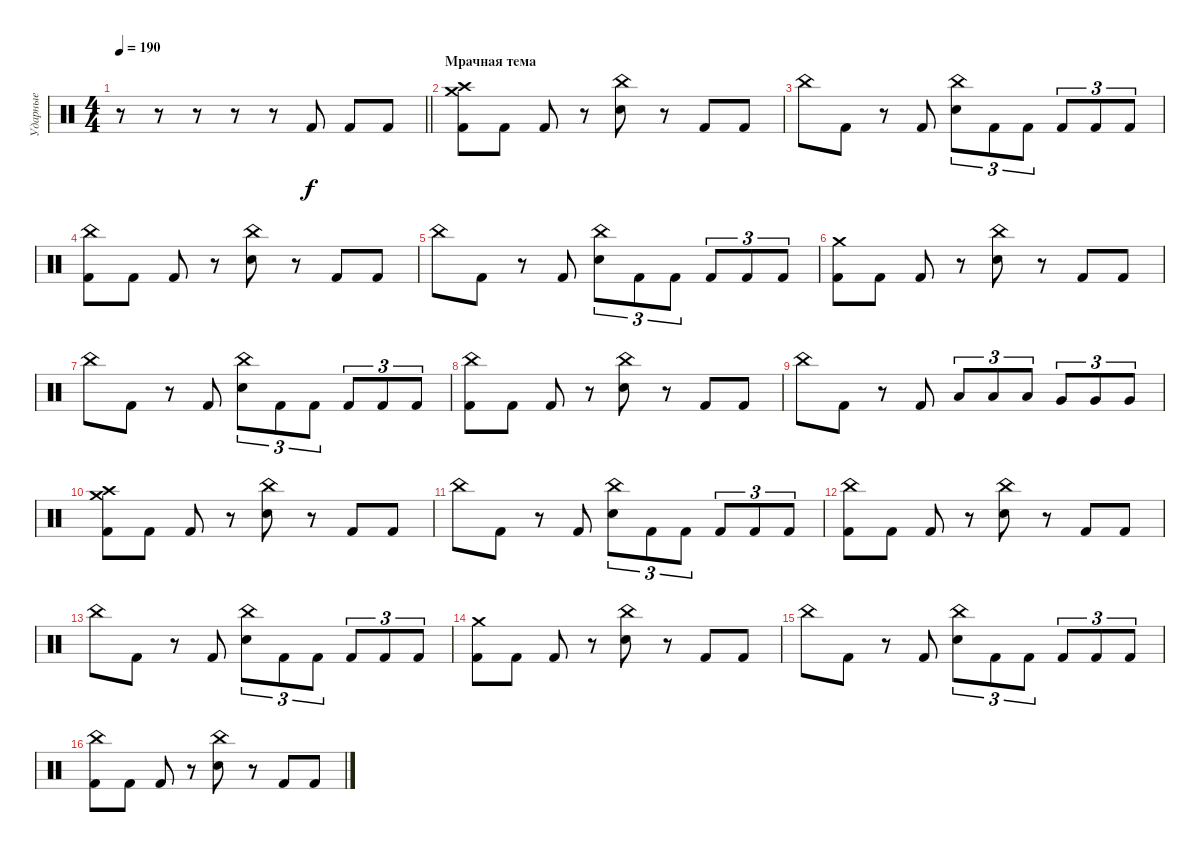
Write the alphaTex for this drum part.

\track ("Ударные" "Ударные") {instrument percussion}
\staff {score}
\articulation defaults
\ts (4 4)
\tempo 190
\clef neutral
\barLineRight lightlight
\ks c
r.8{dy f} r.8 r.8 r.8 r.8 "Kick (hit) 2".8 "Kick (hit) 2".8 "Kick (hit) 2".8 |
\section ("" "Мрачная тема")
("Kick (hit) 2" "Crash high (hit)" "Crash medium (hit)").8 "Kick (hit) 2".8 "Kick (hit) 2".8 r.8 ("Electric Snare (hit)" "China (hit)").8 r.8 "Kick (hit) 2".8 "Kick (hit) 2".8 |
"China (hit)".8 "Kick (hit) 2".8 r.8 "Kick (hit) 2".8 ("Electric Snare (hit)" "China (hit)").8{tu (3 2)} "Kick (hit) 2".8{tu (3 2)} "Kick (hit) 2".8{tu (3 2)} "Kick (hit) 2".8{tu (3 2)} "Kick (hit) 2".8{tu (3 2)} "Kick (hit) 2".8{tu (3 2)} |
("Kick (hit) 2" "China (hit)").8 "Kick (hit) 2".8 "Kick (hit) 2".8 r.8 ("Electric Snare (hit)" "China (hit)").8 r.8 "Kick (hit) 2".8 "Kick (hit) 2".8 |
"China (hit)".8 "Kick (hit) 2".8 r.8 "Kick (hit) 2".8 ("Electric Snare (hit)" "China (hit)").8{tu (3 2)} "Kick (hit) 2".8{tu (3 2)} "Kick (hit) 2".8{tu (3 2)} "Kick (hit) 2".8{tu (3 2)} "Kick (hit) 2".8{tu (3 2)} "Kick (hit) 2".8{tu (3 2)} |
("Kick (hit) 2" "Crash medium (hit)").8 "Kick (hit) 2".8 "Kick (hit) 2".8 r.8 ("Electric Snare (hit)" "China (hit)").8 r.8 "Kick (hit) 2".8 "Kick (hit) 2".8 |
"China (hit)".8 "Kick (hit) 2".8 r.8 "Kick (hit) 2".8 ("Electric Snare (hit)" "China (hit)").8{tu (3 2)} "Kick (hit) 2".8{tu (3 2)} "Kick (hit) 2".8{tu (3 2)} "Kick (hit) 2".8{tu (3 2)} "Kick (hit) 2".8{tu (3 2)} "Kick (hit) 2".8{tu (3 2)} |
("Kick (hit) 2" "China (hit)").8 "Kick (hit) 2".8 "Kick (hit) 2".8 r.8 ("Electric Snare (hit)" "China (hit)").8 r.8 "Kick (hit) 2".8 "Kick (hit) 2".8 |
"China (hit)".8 "Kick (hit) 2".8 r.8 "Kick (hit) 2".8 "Low Tom (hit)".8{tu (3 2)} "Low Tom (hit)".8{tu (3 2)} "Low Tom (hit)".8{tu (3 2)} "Very Low Tom (hit)".8{tu (3 2)} "Very Low Tom (hit)".8{tu (3 2)} "Very Low Tom (hit)".8{tu (3 2)} |
("Kick (hit) 2" "Crash high (hit)" "Crash medium (hit)").8 "Kick (hit) 2".8 "Kick (hit) 2".8 r.8 ("Electric Snare (hit)" "China (hit)").8 r.8 "Kick (hit) 2".8 "Kick (hit) 2".8 |
"China (hit)".8 "Kick (hit) 2".8 r.8 "Kick (hit) 2".8 ("Electric Snare (hit)" "China (hit)").8{tu (3 2)} "Kick (hit) 2".8{tu (3 2)} "Kick (hit) 2".8{tu (3 2)} "Kick (hit) 2".8{tu (3 2)} "Kick (hit) 2".8{tu (3 2)} "Kick (hit) 2".8{tu (3 2)} |
("Kick (hit) 2" "China (hit)").8 "Kick (hit) 2".8 "Kick (hit) 2".8 r.8 ("Electric Snare (hit)" "China (hit)").8 r.8 "Kick (hit) 2".8 "Kick (hit) 2".8 |
"China (hit)".8 "Kick (hit) 2".8 r.8 "Kick (hit) 2".8 ("Electric Snare (hit)" "China (hit)").8{tu (3 2)} "Kick (hit) 2".8{tu (3 2)} "Kick (hit) 2".8{tu (3 2)} "Kick (hit) 2".8{tu (3 2)} "Kick (hit) 2".8{tu (3 2)} "Kick (hit) 2".8{tu (3 2)} |
("Kick (hit) 2" "Crash medium (hit)").8 "Kick (hit) 2".8 "Kick (hit) 2".8 r.8 ("Electric Snare (hit)" "China (hit)").8 r.8 "Kick (hit) 2".8 "Kick (hit) 2".8 |
"China (hit)".8 "Kick (hit) 2".8 r.8 "Kick (hit) 2".8 ("Electric Snare (hit)" "China (hit)").8{tu (3 2)} "Kick (hit) 2".8{tu (3 2)} "Kick (hit) 2".8{tu (3 2)} "Kick (hit) 2".8{tu (3 2)} "Kick (hit) 2".8{tu (3 2)} "Kick (hit) 2".8{tu (3 2)} |
("Kick (hit) 2" "China (hit)").8 "Kick (hit) 2".8 "Kick (hit) 2".8 r.8 ("Electric Snare (hit)" "China (hit)").8 r.8 "Kick (hit) 2".8 "Kick (hit) 2".8
